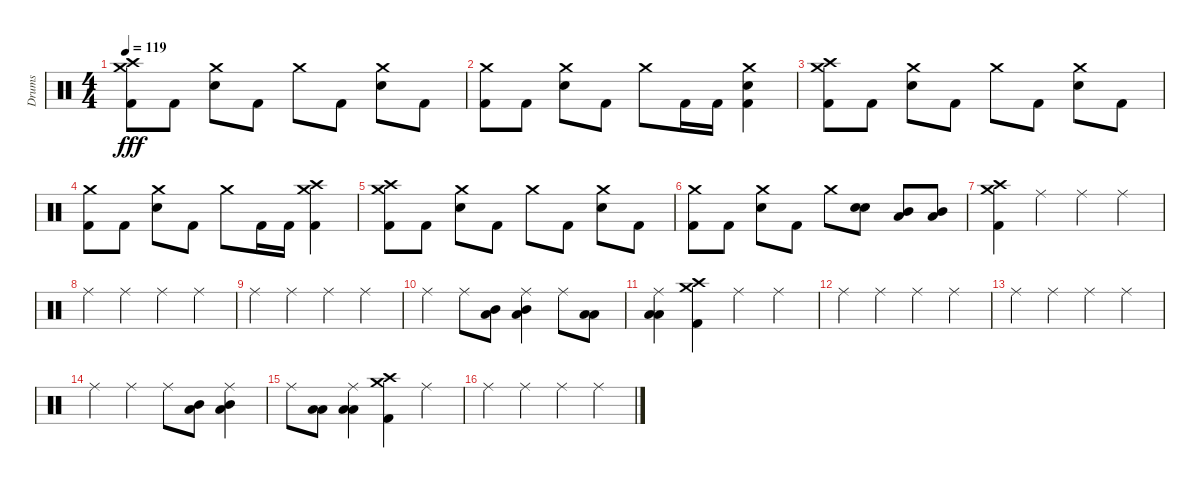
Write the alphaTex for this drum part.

\track ("Drums" "Drums") {instrument percussion}
\staff {score}
\articulation defaults
\ts (4 4)
\tempo 119
\clef neutral
\ks c
("Crash medium (hit)" "Crash high (hit)" "Kick (hit) 2").8{dy fff} "Kick (hit) 2".8 ("Crash medium (hit)" "Snare (hit) 2").8 "Kick (hit) 2".8 "Crash medium (hit)".8 "Kick (hit) 2".8 ("Crash medium (hit)" "Snare (hit) 2").8 "Kick (hit) 2".8 |
("Crash medium (hit)" "Kick (hit) 2").8 "Kick (hit) 2".8 ("Snare (hit) 2" "Crash medium (hit)").8 "Kick (hit) 2".8 "Crash medium (hit)".8 "Kick (hit) 2".16 "Kick (hit) 2".16 ("Crash medium (hit)" "Snare (hit) 2" "Kick (hit) 2").4 |
("Crash medium (hit)" "Crash high (hit)" "Kick (hit) 2").8 "Kick (hit) 2".8 ("Crash medium (hit)" "Snare (hit) 2").8 "Kick (hit) 2".8 "Crash medium (hit)".8 "Kick (hit) 2".8 ("Crash medium (hit)" "Snare (hit) 2").8 "Kick (hit) 2".8 |
("Crash medium (hit)" "Kick (hit) 2").8 "Kick (hit) 2".8 ("Snare (hit) 2" "Crash medium (hit)").8 "Kick (hit) 2".8 "Crash medium (hit)".8 "Kick (hit) 2".16 "Kick (hit) 2".16 ("Crash medium (hit)" "Crash high (hit)" "Kick (hit) 2").4 |
("Crash medium (hit)" "Crash high (hit)" "Kick (hit) 2").8 "Kick (hit) 2".8 ("Crash medium (hit)" "Snare (hit) 2").8 "Kick (hit) 2".8 "Crash medium (hit)".8 "Kick (hit) 2".8 ("Crash medium (hit)" "Snare (hit) 2").8 "Kick (hit) 2".8 |
("Crash medium (hit)" "Kick (hit) 2").8 "Kick (hit) 2".8 ("Snare (hit) 2" "Crash medium (hit)").8 "Kick (hit) 2".8 "Crash medium (hit)".8 ("Snare (hit) 2" "Snare (hit) 2").8 ("Low Tom (hit)" "Mid Tom (hit)").8 ("Mid Tom (hit)" "Low Floor Tom (hit)").8 |
("Crash medium (hit)" "Crash high (hit)" "Kick (hit) 2").4 "Ride (middle)".4 "Ride (middle)".4 "Ride (middle)".4 |
"Ride (middle)".4 "Ride (middle)".4 "Ride (middle)".4 "Ride (middle)".4 |
"Ride (middle)".4 "Ride (middle)".4 "Ride (middle)".4 "Ride (middle)".4 |
"Ride (middle)".4 "Ride (middle)".8 ("Low Tom (hit)" "Mid Tom (hit)").8 ("Ride (middle)" "Low Tom (hit)" "Mid Tom (hit)").4 "Ride (middle)".8 ("Low Tom (hit)" "Low Floor Tom (hit)").8 |
("Ride (middle)" "Low Tom (hit)" "Low Floor Tom (hit)").4 ("Crash medium (hit)" "Crash high (hit)" "Kick (hit) 2").4 "Ride (middle)".4 "Ride (middle)".4 |
"Ride (middle)".4 "Ride (middle)".4 "Ride (middle)".4 "Ride (middle)".4 |
"Ride (middle)".4 "Ride (middle)".4 "Ride (middle)".4 "Ride (middle)".4 |
"Ride (middle)".4 "Ride (middle)".4 "Ride (middle)".8 ("Low Tom (hit)" "Mid Tom (hit)").8 ("Ride (middle)" "Low Tom (hit)" "Mid Tom (hit)").4 |
"Ride (middle)".8 ("Low Tom (hit)" "Low Floor Tom (hit)").8 ("Ride (middle)" "Low Tom (hit)" "Low Floor Tom (hit)").4 ("Crash medium (hit)" "Crash high (hit)" "Kick (hit) 2").4 "Ride (middle)".4 |
"Ride (middle)".4 "Ride (middle)".4 "Ride (middle)".4 "Ride (middle)".4
